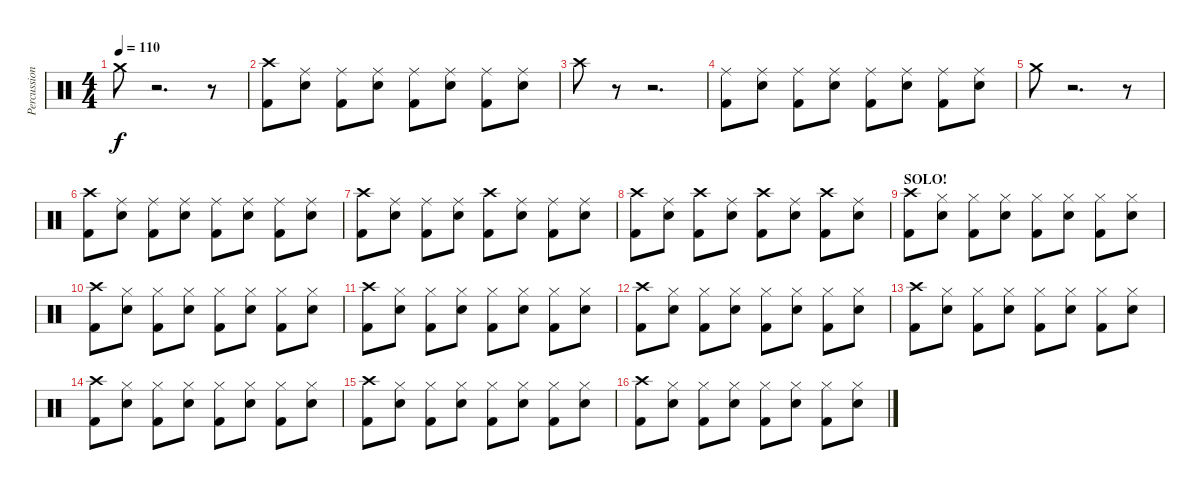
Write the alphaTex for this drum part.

\track ("Percussion" "Percussion") {instrument percussion}
\staff {score}
\articulation defaults
\ts (4 4)
\tempo 110
\clef neutral
\ks c "Crash medium (hit)".8{dy f}
r.2{d} r.8 |
("Crash high (hit)" "Kick (hit) 2").8 ("Ride (middle)" "Snare (hit) 2").8 ("Ride (middle)" "Kick (hit) 2").8 ("Ride (middle)" "Snare (hit) 2").8 ("Ride (middle)" "Kick (hit) 2").8 ("Ride (middle)" "Snare (hit) 2").8 ("Ride (middle)" "Kick (hit) 2").8 ("Ride (middle)" "Snare (hit) 2").8 |
"Crash high (hit)".8 r.8 r.2{d} |
("Ride (middle)" "Kick (hit) 2").8 ("Ride (middle)" "Snare (hit) 2").8 ("Ride (middle)" "Kick (hit) 2").8 ("Ride (middle)" "Snare (hit) 2").8 ("Ride (middle)" "Kick (hit) 2").8 ("Ride (middle)" "Snare (hit) 2").8 ("Ride (middle)" "Kick (hit) 2").8 ("Ride (middle)" "Snare (hit) 2").8 |
"Crash medium (hit)".8 r.2{d} r.8 |
("Crash high (hit)" "Kick (hit) 2").8 ("Ride (middle)" "Snare (hit) 2").8 ("Ride (middle)" "Kick (hit) 2").8 ("Ride (middle)" "Snare (hit) 2").8 ("Ride (middle)" "Kick (hit) 2").8 ("Ride (middle)" "Snare (hit) 2").8 ("Ride (middle)" "Kick (hit) 2").8 ("Ride (middle)" "Snare (hit) 2").8 |
("Crash high (hit)" "Kick (hit) 2").8 ("Ride (middle)" "Snare (hit) 2").8 ("Ride (middle)" "Kick (hit) 2").8 ("Ride (middle)" "Snare (hit) 2").8 ("Crash high (hit)" "Kick (hit) 2").8 ("Ride (middle)" "Snare (hit) 2").8 ("Ride (middle)" "Kick (hit) 2").8 ("Ride (middle)" "Snare (hit) 2").8 |
("Crash high (hit)" "Kick (hit) 2").8 ("Ride (middle)" "Snare (hit) 2").8 ("Crash high (hit)" "Kick (hit) 2").8 ("Ride (middle)" "Snare (hit) 2").8 ("Crash high (hit)" "Kick (hit) 2").8 ("Ride (middle)" "Snare (hit) 2").8 ("Crash high (hit)" "Kick (hit) 2").8 ("Ride (middle)" "Snare (hit) 2").8 |
\section ("" "SOLO!")
("Crash high (hit)" "Kick (hit) 2").8 ("Hi-Hat (closed)" "Snare (hit) 2").8 ("Hi-Hat (closed)" "Kick (hit) 2").8 ("Hi-Hat (closed)" "Snare (hit) 2").8 ("Hi-Hat (closed)" "Kick (hit) 2").8 ("Hi-Hat (closed)" "Snare (hit) 2").8 ("Hi-Hat (closed)" "Kick (hit) 2").8 ("Hi-Hat (closed)" "Snare (hit) 2").8 |
("Crash high (hit)" "Kick (hit) 2").8 ("Hi-Hat (closed)" "Snare (hit) 2").8 ("Hi-Hat (closed)" "Kick (hit) 2").8 ("Hi-Hat (closed)" "Snare (hit) 2").8 ("Hi-Hat (closed)" "Kick (hit) 2").8 ("Hi-Hat (closed)" "Snare (hit) 2").8 ("Hi-Hat (closed)" "Kick (hit) 2").8 ("Hi-Hat (closed)" "Snare (hit) 2").8 |
("Crash high (hit)" "Kick (hit) 2").8 ("Hi-Hat (closed)" "Snare (hit) 2").8 ("Hi-Hat (closed)" "Kick (hit) 2").8 ("Hi-Hat (closed)" "Snare (hit) 2").8 ("Hi-Hat (closed)" "Kick (hit) 2").8 ("Hi-Hat (closed)" "Snare (hit) 2").8 ("Hi-Hat (closed)" "Kick (hit) 2").8 ("Hi-Hat (closed)" "Snare (hit) 2").8 |
("Crash high (hit)" "Kick (hit) 2").8 ("Hi-Hat (closed)" "Snare (hit) 2").8 ("Hi-Hat (closed)" "Kick (hit) 2").8 ("Hi-Hat (closed)" "Snare (hit) 2").8 ("Hi-Hat (closed)" "Kick (hit) 2").8 ("Hi-Hat (closed)" "Snare (hit) 2").8 ("Hi-Hat (closed)" "Kick (hit) 2").8 ("Hi-Hat (closed)" "Snare (hit) 2").8 |
("Crash high (hit)" "Kick (hit) 2").8 ("Hi-Hat (closed)" "Snare (hit) 2").8 ("Hi-Hat (closed)" "Kick (hit) 2").8 ("Hi-Hat (closed)" "Snare (hit) 2").8 ("Hi-Hat (closed)" "Kick (hit) 2").8 ("Hi-Hat (closed)" "Snare (hit) 2").8 ("Hi-Hat (closed)" "Kick (hit) 2").8 ("Hi-Hat (closed)" "Snare (hit) 2").8 |
("Crash high (hit)" "Kick (hit) 2").8 ("Hi-Hat (closed)" "Snare (hit) 2").8 ("Hi-Hat (closed)" "Kick (hit) 2").8 ("Hi-Hat (closed)" "Snare (hit) 2").8 ("Hi-Hat (closed)" "Kick (hit) 2").8 ("Hi-Hat (closed)" "Snare (hit) 2").8 ("Hi-Hat (closed)" "Kick (hit) 2").8 ("Hi-Hat (closed)" "Snare (hit) 2").8 |
("Crash high (hit)" "Kick (hit) 2").8 ("Hi-Hat (closed)" "Snare (hit) 2").8 ("Hi-Hat (closed)" "Kick (hit) 2").8 ("Hi-Hat (closed)" "Snare (hit) 2").8 ("Hi-Hat (closed)" "Kick (hit) 2").8 ("Hi-Hat (closed)" "Snare (hit) 2").8 ("Hi-Hat (closed)" "Kick (hit) 2").8 ("Hi-Hat (closed)" "Snare (hit) 2").8 |
("Crash high (hit)" "Kick (hit) 2").8 ("Hi-Hat (closed)" "Snare (hit) 2").8 ("Hi-Hat (closed)" "Kick (hit) 2").8 ("Hi-Hat (closed)" "Snare (hit) 2").8 ("Hi-Hat (closed)" "Kick (hit) 2").8 ("Hi-Hat (closed)" "Snare (hit) 2").8 ("Hi-Hat (closed)" "Kick (hit) 2").8 ("Hi-Hat (closed)" "Snare (hit) 2").8
